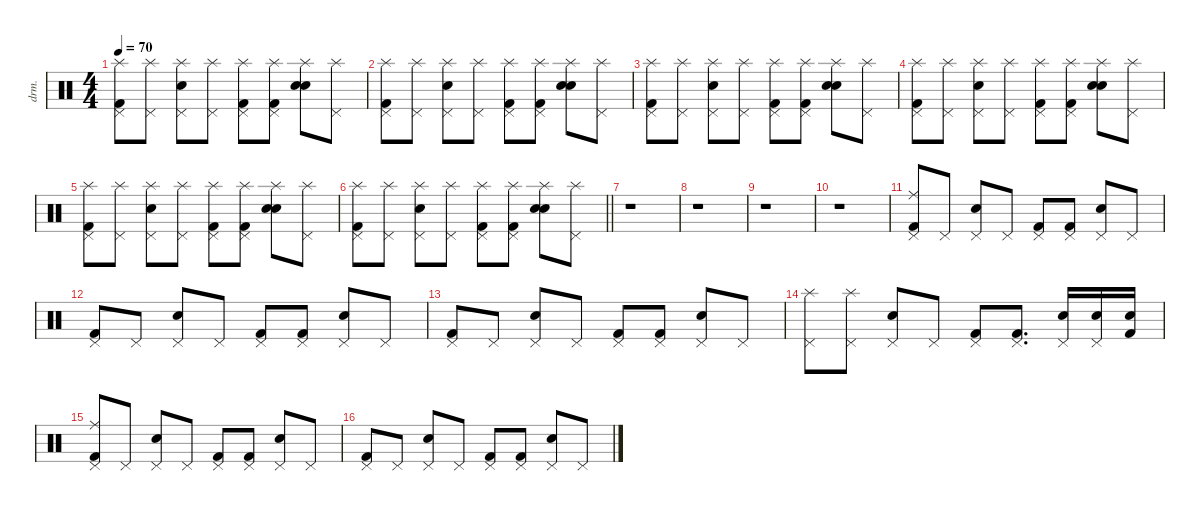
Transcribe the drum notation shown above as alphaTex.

\defaultSystemsLayout 4
\hideDynamics
\bracketExtendMode nobrackets
\otherSystemsTrackNameOrientation horizontal
\track ("Drums" "drm.") {defaultSystemsLayout 4 instrument percussion}
\staff {score}
\articulation defaults
\ts (4 4)
\tempo 70
\clef neutral
\ks c
("Splash (hit)" "Pedal Hi-Hat (hit)" "Kick (hit) 2").8{dy mf beam Down} ("Splash (hit)" "Pedal Hi-Hat (hit)").8{beam Down} ("Splash (hit)" "Pedal Hi-Hat (hit)" "Snare (hit) 2").8{beam Down} ("Splash (hit)" "Pedal Hi-Hat (hit)").8{beam Down} ("Splash (hit)" "Pedal Hi-Hat (hit)" "Kick (hit) 2").8{beam Down} ("Splash (hit)" "Pedal Hi-Hat (hit)" "Kick (hit) 2").8{beam Down} ("Splash (hit)" "Snare (hit) 2" "Snare (hit) 2").8{beam Down} ("Splash (hit)" "Pedal Hi-Hat (hit)").8{beam Down} |
("Splash (hit)" "Pedal Hi-Hat (hit)" "Kick (hit) 2").8{beam Down} ("Splash (hit)" "Pedal Hi-Hat (hit)").8{beam Down} ("Splash (hit)" "Pedal Hi-Hat (hit)" "Snare (hit) 2").8{beam Down} ("Splash (hit)" "Pedal Hi-Hat (hit)").8{beam Down} ("Splash (hit)" "Pedal Hi-Hat (hit)" "Kick (hit) 2").8{beam Down} ("Splash (hit)" "Pedal Hi-Hat (hit)" "Kick (hit) 2").8{beam Down} ("Splash (hit)" "Snare (hit) 2" "Snare (hit) 2").8{beam Down} ("Splash (hit)" "Pedal Hi-Hat (hit)").8{beam Down} |
("Splash (hit)" "Pedal Hi-Hat (hit)" "Kick (hit) 2").8{beam Down} ("Splash (hit)" "Pedal Hi-Hat (hit)").8{beam Down} ("Splash (hit)" "Pedal Hi-Hat (hit)" "Snare (hit) 2").8{beam Down} ("Splash (hit)" "Pedal Hi-Hat (hit)").8{beam Down} ("Splash (hit)" "Pedal Hi-Hat (hit)" "Kick (hit) 2").8{beam Down} ("Splash (hit)" "Pedal Hi-Hat (hit)" "Kick (hit) 2").8{beam Down} ("Splash (hit)" "Snare (hit) 2" "Snare (hit) 2").8{beam Down} ("Splash (hit)" "Pedal Hi-Hat (hit)").8{beam Down} |
("Splash (hit)" "Pedal Hi-Hat (hit)" "Kick (hit) 2").8{beam Down} ("Splash (hit)" "Pedal Hi-Hat (hit)").8{beam Down} ("Splash (hit)" "Pedal Hi-Hat (hit)" "Snare (hit) 2").8{beam Down} ("Splash (hit)" "Pedal Hi-Hat (hit)").8{beam Down} ("Splash (hit)" "Pedal Hi-Hat (hit)" "Kick (hit) 2").8{beam Down} ("Splash (hit)" "Pedal Hi-Hat (hit)" "Kick (hit) 2").8{beam Down} ("Splash (hit)" "Snare (hit) 2" "Snare (hit) 2").8{beam Down} ("Splash (hit)" "Pedal Hi-Hat (hit)").8{beam Down} |
("Splash (hit)" "Pedal Hi-Hat (hit)" "Kick (hit) 2").8{beam Down} ("Splash (hit)" "Pedal Hi-Hat (hit)").8{beam Down} ("Splash (hit)" "Pedal Hi-Hat (hit)" "Snare (hit) 2").8{beam Down} ("Splash (hit)" "Pedal Hi-Hat (hit)").8{beam Down} ("Splash (hit)" "Pedal Hi-Hat (hit)" "Kick (hit) 2").8{beam Down} ("Splash (hit)" "Pedal Hi-Hat (hit)" "Kick (hit) 2").8{beam Down} ("Splash (hit)" "Snare (hit) 2" "Snare (hit) 2").8{beam Down} ("Splash (hit)" "Pedal Hi-Hat (hit)").8{beam Down} |
\barLineRight lightlight
("Splash (hit)" "Pedal Hi-Hat (hit)" "Kick (hit) 2").8{beam Down} ("Splash (hit)" "Pedal Hi-Hat (hit)").8{beam Down} ("Splash (hit)" "Pedal Hi-Hat (hit)" "Snare (hit) 2").8{beam Down} ("Splash (hit)" "Pedal Hi-Hat (hit)").8{beam Down} ("Splash (hit)" "Pedal Hi-Hat (hit)" "Kick (hit) 2").8{beam Down} ("Splash (hit)" "Pedal Hi-Hat (hit)" "Kick (hit) 2").8{beam Down} ("Splash (hit)" "Snare (hit) 2" "Snare (hit) 2").8{beam Down} ("Splash (hit)" "Pedal Hi-Hat (hit)").8{beam Down} |
r.1{beam Down} |
r.1{beam Down} |
r.1{beam Down} |
r.1{beam Down} |
("Pedal Hi-Hat (hit)" "Ride (middle)" "Kick (hit) 2").8{dy f beam Up} "Pedal Hi-Hat (hit)".8{beam Up} ("Pedal Hi-Hat (hit)" "Snare (hit) 2").8{beam Up} "Pedal Hi-Hat (hit)".8{beam Up} ("Pedal Hi-Hat (hit)" "Kick (hit) 2").8{beam Up} ("Pedal Hi-Hat (hit)" "Kick (hit) 2").8{beam Up} ("Pedal Hi-Hat (hit)" "Snare (hit) 2").8{beam Up} "Pedal Hi-Hat (hit)".8{beam Up} |
("Pedal Hi-Hat (hit)" "Kick (hit) 2").8{beam Up} "Pedal Hi-Hat (hit)".8{beam Up} ("Pedal Hi-Hat (hit)" "Snare (hit) 2").8{beam Up} "Pedal Hi-Hat (hit)".8{beam Up} ("Pedal Hi-Hat (hit)" "Kick (hit) 2").8{beam Up} ("Pedal Hi-Hat (hit)" "Kick (hit) 2").8{beam Up} ("Pedal Hi-Hat (hit)" "Snare (hit) 2").8{beam Up} "Pedal Hi-Hat (hit)".8{beam Up} |
("Pedal Hi-Hat (hit)" "Kick (hit) 2").8{beam Up} "Pedal Hi-Hat (hit)".8{beam Up} ("Pedal Hi-Hat (hit)" "Snare (hit) 2").8{beam Up} "Pedal Hi-Hat (hit)".8{beam Up} ("Pedal Hi-Hat (hit)" "Kick (hit) 2").8{beam Up} ("Pedal Hi-Hat (hit)" "Kick (hit) 2").8{beam Up} ("Pedal Hi-Hat (hit)" "Snare (hit) 2").8{beam Up} "Pedal Hi-Hat (hit)".8{beam Up} |
("Splash (hit)" "Pedal Hi-Hat (hit)").8{beam Down} ("Splash (hit)" "Pedal Hi-Hat (hit)").8{beam Down} ("Pedal Hi-Hat (hit)" "Snare (hit) 2").8{beam Up} "Pedal Hi-Hat (hit)".8{beam Up} ("Pedal Hi-Hat (hit)" "Kick (hit) 2").8{beam Up} ("Pedal Hi-Hat (hit)" "Kick (hit) 2").8{d beam Up} ("Pedal Hi-Hat (hit)" "Snare (hit) 2").16{beam Up} ("Pedal Hi-Hat (hit)" "Snare (hit) 2").16{beam Up} ("Kick (hit) 2" "Snare (hit) 2").16{beam Up} |
("Ride (middle)" "Pedal Hi-Hat (hit)" "Kick (hit) 2").8{beam Up} "Pedal Hi-Hat (hit)".8{beam Up} ("Pedal Hi-Hat (hit)" "Snare (hit) 2").8{beam Up} "Pedal Hi-Hat (hit)".8{beam Up} ("Pedal Hi-Hat (hit)" "Kick (hit) 2").8{beam Up} ("Pedal Hi-Hat (hit)" "Kick (hit) 2").8{beam Up} ("Pedal Hi-Hat (hit)" "Snare (hit) 2").8{beam Up} "Pedal Hi-Hat (hit)".8{beam Up} |
("Pedal Hi-Hat (hit)" "Kick (hit) 2").8{beam Up} "Pedal Hi-Hat (hit)".8{beam Up} ("Pedal Hi-Hat (hit)" "Snare (hit) 2").8{beam Up} "Pedal Hi-Hat (hit)".8{beam Up} ("Pedal Hi-Hat (hit)" "Kick (hit) 2").8{beam Up} ("Pedal Hi-Hat (hit)" "Kick (hit) 2").8{beam Up} ("Pedal Hi-Hat (hit)" "Snare (hit) 2").8{beam Up} "Pedal Hi-Hat (hit)".8{beam Up}
